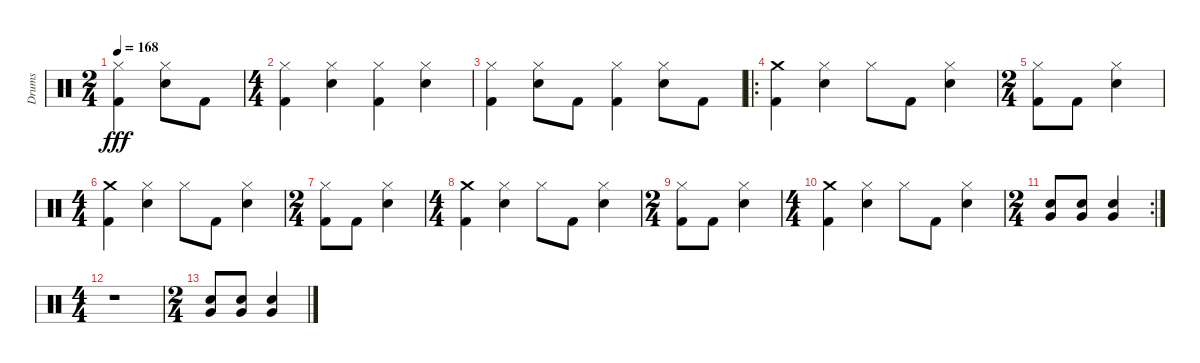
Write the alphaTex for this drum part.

\track ("Drums" "Drums") {instrument percussion}
\staff {score}
\articulation defaults
\ts (2 4)
\tempo 168
\clef neutral
\ks c
("Hi-Hat (closed)" "Kick (hit) 2").4{dy fff} ("Snare (hit) 2" "Hi-Hat (closed)").8 "Kick (hit) 2".8 |
\ts (4 4)
("Kick (hit) 2" "Hi-Hat (closed)").4 ("Snare (hit) 2" "Hi-Hat (closed)").4 ("Kick (hit) 2" "Hi-Hat (closed)").4 ("Snare (hit) 2" "Hi-Hat (closed)").4 |
("Hi-Hat (closed)" "Kick (hit) 2").4 ("Snare (hit) 2" "Hi-Hat (closed)").8 "Kick (hit) 2".8 ("Kick (hit) 2" "Hi-Hat (closed)").4 ("Hi-Hat (closed)" "Snare (hit) 2").8 "Kick (hit) 2".8 |
\ro
("Kick (hit) 2" "Crash medium (hit)").4 ("Hi-Hat (closed)" "Snare (hit) 2").4 "Hi-Hat (closed)".8 "Kick (hit) 2".8 ("Snare (hit) 2" "Hi-Hat (closed)").4 |
\ts (2 4)
("Kick (hit) 2" "Hi-Hat (closed)").8 "Kick (hit) 2".8 ("Snare (hit) 2" "Hi-Hat (closed)").4 |
\ts (4 4)
("Kick (hit) 2" "Crash medium (hit)").4 ("Hi-Hat (closed)" "Snare (hit) 2").4 "Hi-Hat (closed)".8 "Kick (hit) 2".8 ("Snare (hit) 2" "Hi-Hat (closed)").4 |
\ts (2 4)
("Kick (hit) 2" "Hi-Hat (closed)").8 "Kick (hit) 2".8 ("Snare (hit) 2" "Hi-Hat (closed)").4 |
\ts (4 4)
("Kick (hit) 2" "Crash medium (hit)").4 ("Hi-Hat (closed)" "Snare (hit) 2").4 "Hi-Hat (closed)".8 "Kick (hit) 2".8 ("Snare (hit) 2" "Hi-Hat (closed)").4 |
\ts (2 4)
("Kick (hit) 2" "Hi-Hat (closed)").8 "Kick (hit) 2".8 ("Snare (hit) 2" "Hi-Hat (closed)").4 |
\ts (4 4)
("Kick (hit) 2" "Crash medium (hit)").4 ("Hi-Hat (closed)" "Snare (hit) 2").4 "Hi-Hat (closed)".8 "Kick (hit) 2".8 ("Snare (hit) 2" "Hi-Hat (closed)").4 |
\rc 2
\ts (2 4)
("Very Low Tom (hit)" "Snare (hit) 2").8 ("Very Low Tom (hit)" "Snare (hit) 2").8 ("Snare (hit) 2" "Very Low Tom (hit)").4 |
\ts (4 4)
r.1 |
\ts (2 4)
("Very Low Tom (hit)" "Snare (hit) 2").8 ("Very Low Tom (hit)" "Snare (hit) 2").8 ("Snare (hit) 2" "Very Low Tom (hit)").4
